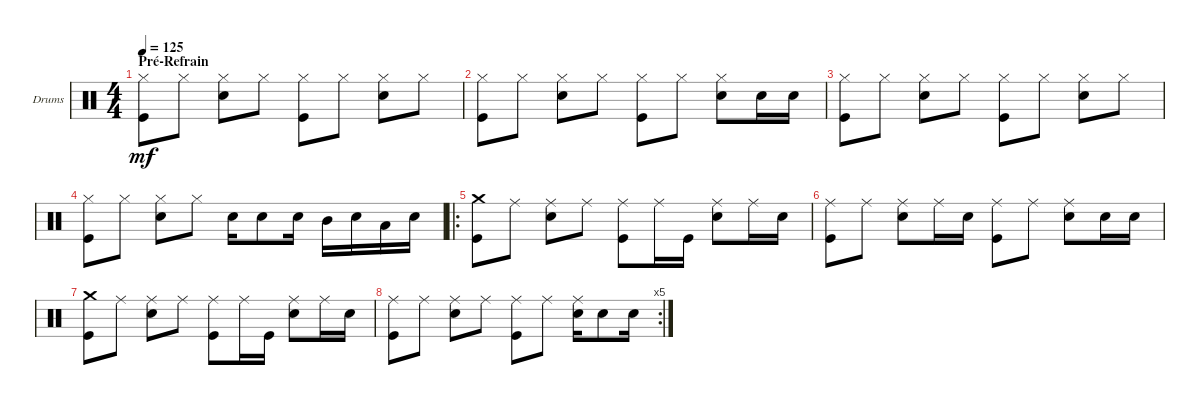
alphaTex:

\defaultSystemsLayout 4
\bracketExtendMode groupsimilarinstruments
\firstSystemTrackNameOrientation horizontal
\otherSystemsTrackNameOrientation horizontal
\track ("Drumkit" "Drums") {instrument percussion}
\staff {score}
\articulation defaults
\ts (4 4)
\section ("" "Pré-Refrain")
\tempo 125
\clef neutral
\ks c
("Kick (hit)" "Hi-Hat (closed)").8{dy mf} "Hi-Hat (closed)".8 ("Hi-Hat (closed)" "Snare (hit) 2").8 "Hi-Hat (closed)".8 ("Hi-Hat (closed)" "Kick (hit)").8 "Hi-Hat (closed)".8 ("Hi-Hat (closed)" "Snare (hit) 2").8 "Hi-Hat (closed)".8 |
("Kick (hit)" "Hi-Hat (closed)").8 "Hi-Hat (closed)".8 ("Hi-Hat (closed)" "Snare (hit) 2").8 "Hi-Hat (closed)".8 ("Hi-Hat (closed)" "Kick (hit)").8 "Hi-Hat (closed)".8 ("Hi-Hat (closed)" "Snare (hit) 2").8 "Snare (hit) 2".16 "Snare (hit) 2".16 |
("Kick (hit)" "Hi-Hat (closed)").8 "Hi-Hat (closed)".8 ("Hi-Hat (closed)" "Snare (hit) 2").8 "Hi-Hat (closed)".8 ("Hi-Hat (closed)" "Kick (hit)").8 "Hi-Hat (closed)".8 ("Hi-Hat (closed)" "Snare (hit) 2").8 "Hi-Hat (closed)".8 |
("Kick (hit)" "Hi-Hat (closed)").8 "Hi-Hat (closed)".8 ("Hi-Hat (closed)" "Snare (hit) 2").8 "Hi-Hat (closed)".8 "Snare (hit) 2".16 "Snare (hit) 2".8 "Snare (hit) 2".16 "Mid Tom (hit)".16 "Snare (hit) 2".16 "Low Tom (hit)".16 "Snare (hit) 2".16 |
\ro
("Kick (hit)" "Crash medium (hit)").8 "Ride (middle)".8 ("Snare (hit) 2" "Ride (middle)").8 "Ride (middle)".8 ("Kick (hit)" "Ride (middle)").8 "Ride (middle)".16 "Kick (hit)".16 ("Snare (hit) 2" "Ride (middle)").8 "Ride (middle)".16 "Snare (hit) 2".16 |
("Kick (hit)" "Ride (middle)").8 "Ride (middle)".8 ("Snare (hit) 2" "Ride (middle)").8 "Ride (middle)".16 "Snare (hit) 2".16 ("Kick (hit)" "Ride (middle)").8 "Ride (middle)".8 ("Snare (hit) 2" "Ride (middle)").8 "Snare (hit) 2".16 "Snare (hit) 2".16 |
("Kick (hit)" "Crash medium (hit)").8 "Ride (middle)".8 ("Snare (hit) 2" "Ride (middle)").8 "Ride (middle)".8 ("Kick (hit)" "Ride (middle)").8 "Ride (middle)".16 "Kick (hit)".16 ("Snare (hit) 2" "Ride (middle)").8 "Ride (middle)".16 "Snare (hit) 2".16 |
\rc 5
("Kick (hit)" "Ride (middle)").8 "Ride (middle)".8 ("Snare (hit) 2" "Ride (middle)").8 "Ride (middle)".8 ("Kick (hit)" "Ride (middle)").8 "Ride (middle)".8 ("Snare (hit) 2" "Ride (middle)").16 "Snare (hit) 2".8 "Snare (hit) 2".16
